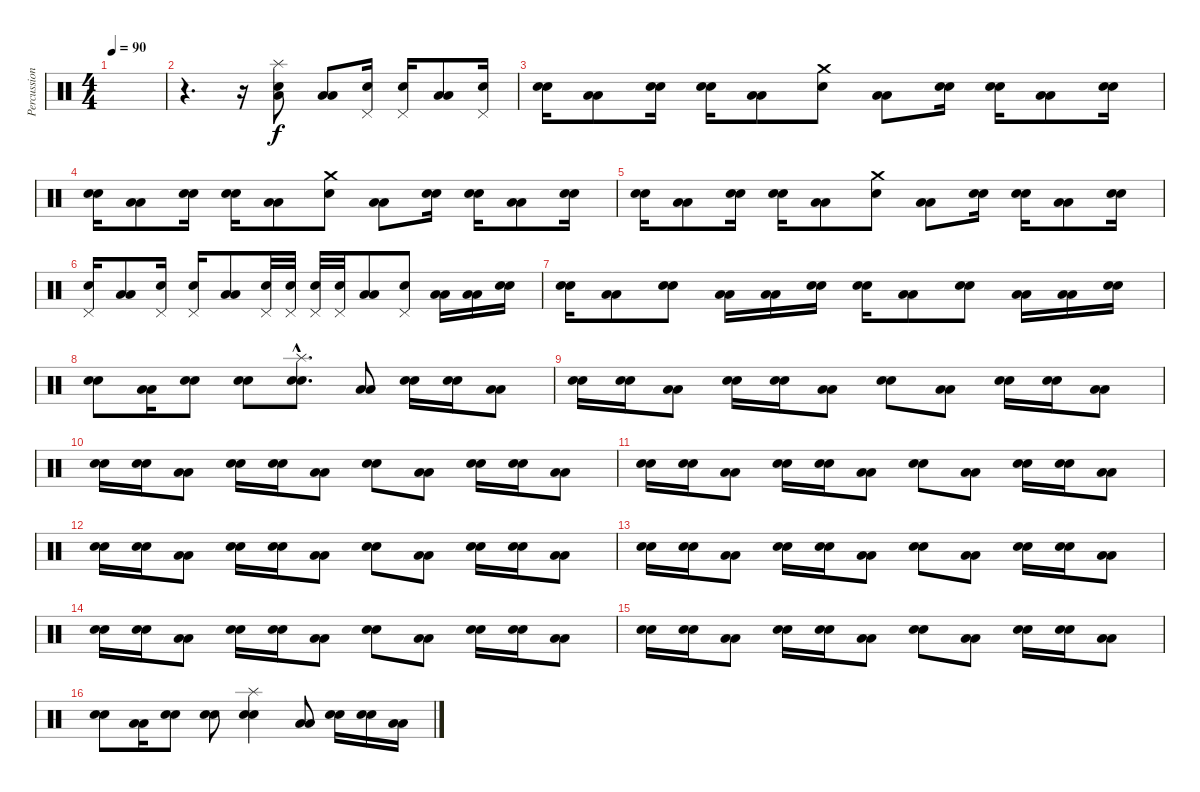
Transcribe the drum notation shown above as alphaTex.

\track ("Percussions" "Percussion") {instrument percussion}
\staff {score}
\articulation defaults
\ts (4 4)
\tempo 90
\clef neutral
\ks c
|
r.4{d} r.16 ("Splash (hit)" "Snare (hit) 2" "Low Floor Tom (hit)").8 ("Low Floor Tom (hit)" "Low Floor Tom (hit)").8 ("Snare (hit) 2" "Pedal Hi-Hat (hit)").16 ("Snare (hit) 2" "Pedal Hi-Hat (hit)").16 ("Low Floor Tom (hit)" "Low Floor Tom (hit)").8 ("Snare (hit) 2" "Pedal Hi-Hat (hit)").16 |
("Snare (hit) 2" "Electric Snare (hit)").16 ("Low Floor Tom (hit)" "Low Floor Tom (hit)").8 ("Snare (hit) 2" "Electric Snare (hit)").16 ("Snare (hit) 2" "Electric Snare (hit)").16 ("Low Floor Tom (hit)" "Low Floor Tom (hit)").8 ("Snare (hit) 2" "Crash medium (hit)").8 ("Low Floor Tom (hit)" "Low Floor Tom (hit)").8 ("Snare (hit) 2" "Electric Snare (hit)").16 ("Snare (hit) 2" "Electric Snare (hit)").16 ("Low Floor Tom (hit)" "Low Floor Tom (hit)").8 ("Snare (hit) 2" "Electric Snare (hit)").16 |
("Snare (hit) 2" "Electric Snare (hit)").16 ("Low Floor Tom (hit)" "Low Floor Tom (hit)").8 ("Snare (hit) 2" "Electric Snare (hit)").16 ("Snare (hit) 2" "Electric Snare (hit)").16 ("Low Floor Tom (hit)" "Low Floor Tom (hit)").8 ("Snare (hit) 2" "Crash medium (hit)").8 ("Low Floor Tom (hit)" "Low Floor Tom (hit)").8 ("Snare (hit) 2" "Electric Snare (hit)").16 ("Snare (hit) 2" "Electric Snare (hit)").16 ("Low Floor Tom (hit)" "Low Floor Tom (hit)").8 ("Snare (hit) 2" "Electric Snare (hit)").16 |
("Snare (hit) 2" "Electric Snare (hit)").16 ("Low Floor Tom (hit)" "Low Floor Tom (hit)").8 ("Snare (hit) 2" "Electric Snare (hit)").16 ("Snare (hit) 2" "Electric Snare (hit)").16 ("Low Floor Tom (hit)" "Low Floor Tom (hit)").8 ("Snare (hit) 2" "Crash medium (hit)").8 ("Low Floor Tom (hit)" "Low Floor Tom (hit)").8 ("Snare (hit) 2" "Electric Snare (hit)").16 ("Snare (hit) 2" "Electric Snare (hit)").16 ("Low Floor Tom (hit)" "Low Floor Tom (hit)").8 ("Snare (hit) 2" "Electric Snare (hit)").16 |
("Snare (hit) 2" "Pedal Hi-Hat (hit)").16 ("Low Floor Tom (hit)" "Low Floor Tom (hit)").8 ("Snare (hit) 2" "Pedal Hi-Hat (hit)").16 ("Snare (hit) 2" "Pedal Hi-Hat (hit)").16 ("Low Floor Tom (hit)" "Low Floor Tom (hit)").8 ("Snare (hit) 2" "Pedal Hi-Hat (hit)").32 ("Snare (hit) 2" "Pedal Hi-Hat (hit)").32 ("Snare (hit) 2" "Pedal Hi-Hat (hit)").32 ("Snare (hit) 2" "Pedal Hi-Hat (hit)").32 ("Low Floor Tom (hit)" "Low Floor Tom (hit)").8 ("Snare (hit) 2" "Pedal Hi-Hat (hit)").8 ("Low Floor Tom (hit)" "Low Floor Tom (hit)").16 ("Low Floor Tom (hit)" "Low Floor Tom (hit)").16 ("Snare (hit) 2" "Electric Snare (hit)").16 |
("Snare (hit) 2" "Electric Snare (hit)").16 ("Low Floor Tom (hit)" "Low Floor Tom (hit)").8 ("Snare (hit) 2" "Electric Snare (hit)").8 ("Low Floor Tom (hit)" "Low Floor Tom (hit)").16 ("Low Floor Tom (hit)" "Low Floor Tom (hit)").16 ("Snare (hit) 2" "Electric Snare (hit)").16 ("Snare (hit) 2" "Electric Snare (hit)").16 ("Low Floor Tom (hit)" "Low Floor Tom (hit)").8 ("Snare (hit) 2" "Electric Snare (hit)").8 ("Low Floor Tom (hit)" "Low Floor Tom (hit)").16 ("Low Floor Tom (hit)" "Low Floor Tom (hit)").16 ("Snare (hit) 2" "Electric Snare (hit)").16 |
("Snare (hit) 2" "Electric Snare (hit)").8 ("Low Floor Tom (hit)" "Low Floor Tom (hit)").16 ("Snare (hit) 2" "Snare (hit) 2").8 ("Snare (hit) 2" "Snare (hit) 2").8 ("Snare (hit) 2"{hac} "Snare (hit) 2"{hac} "Splash (hit)"{hac}).8{d} ("Low Floor Tom (hit)" "Low Floor Tom (hit)").8 ("Snare (hit) 2" "Electric Snare (hit)").16 ("Snare (hit) 2" "Electric Snare (hit)").16 ("Low Floor Tom (hit)" "Low Floor Tom (hit)").8 |
("Snare (hit) 2" "Electric Snare (hit)").16 ("Snare (hit) 2" "Electric Snare (hit)").16 ("Low Floor Tom (hit)" "Low Floor Tom (hit)").8 ("Snare (hit) 2" "Electric Snare (hit)").16 ("Snare (hit) 2" "Electric Snare (hit)").16 ("Low Floor Tom (hit)" "Low Floor Tom (hit)").8 ("Snare (hit) 2" "Electric Snare (hit)").8 ("Low Floor Tom (hit)" "Low Floor Tom (hit)").8 ("Snare (hit) 2" "Electric Snare (hit)").16 ("Snare (hit) 2" "Electric Snare (hit)").16 ("Low Floor Tom (hit)" "Low Floor Tom (hit)").8 |
("Snare (hit) 2" "Electric Snare (hit)").16 ("Snare (hit) 2" "Electric Snare (hit)").16 ("Low Floor Tom (hit)" "Low Floor Tom (hit)").8 ("Snare (hit) 2" "Electric Snare (hit)").16 ("Snare (hit) 2" "Electric Snare (hit)").16 ("Low Floor Tom (hit)" "Low Floor Tom (hit)").8 ("Snare (hit) 2" "Electric Snare (hit)").8 ("Low Floor Tom (hit)" "Low Floor Tom (hit)").8 ("Snare (hit) 2" "Electric Snare (hit)").16 ("Snare (hit) 2" "Electric Snare (hit)").16 ("Low Floor Tom (hit)" "Low Floor Tom (hit)").8 |
("Snare (hit) 2" "Electric Snare (hit)").16 ("Snare (hit) 2" "Electric Snare (hit)").16 ("Low Floor Tom (hit)" "Low Floor Tom (hit)").8 ("Snare (hit) 2" "Electric Snare (hit)").16 ("Snare (hit) 2" "Electric Snare (hit)").16 ("Low Floor Tom (hit)" "Low Floor Tom (hit)").8 ("Snare (hit) 2" "Electric Snare (hit)").8 ("Low Floor Tom (hit)" "Low Floor Tom (hit)").8 ("Snare (hit) 2" "Electric Snare (hit)").16 ("Snare (hit) 2" "Electric Snare (hit)").16 ("Low Floor Tom (hit)" "Low Floor Tom (hit)").8 |
("Snare (hit) 2" "Electric Snare (hit)").16 ("Snare (hit) 2" "Electric Snare (hit)").16 ("Low Floor Tom (hit)" "Low Floor Tom (hit)").8 ("Snare (hit) 2" "Electric Snare (hit)").16 ("Snare (hit) 2" "Electric Snare (hit)").16 ("Low Floor Tom (hit)" "Low Floor Tom (hit)").8 ("Snare (hit) 2" "Electric Snare (hit)").8 ("Low Floor Tom (hit)" "Low Floor Tom (hit)").8 ("Snare (hit) 2" "Electric Snare (hit)").16 ("Snare (hit) 2" "Electric Snare (hit)").16 ("Low Floor Tom (hit)" "Low Floor Tom (hit)").8 |
("Snare (hit) 2" "Electric Snare (hit)").16 ("Snare (hit) 2" "Electric Snare (hit)").16 ("Low Floor Tom (hit)" "Low Floor Tom (hit)").8 ("Snare (hit) 2" "Electric Snare (hit)").16 ("Snare (hit) 2" "Electric Snare (hit)").16 ("Low Floor Tom (hit)" "Low Floor Tom (hit)").8 ("Snare (hit) 2" "Electric Snare (hit)").8 ("Low Floor Tom (hit)" "Low Floor Tom (hit)").8 ("Snare (hit) 2" "Electric Snare (hit)").16 ("Snare (hit) 2" "Electric Snare (hit)").16 ("Low Floor Tom (hit)" "Low Floor Tom (hit)").8 |
("Snare (hit) 2" "Electric Snare (hit)").16 ("Snare (hit) 2" "Electric Snare (hit)").16 ("Low Floor Tom (hit)" "Low Floor Tom (hit)").8 ("Snare (hit) 2" "Electric Snare (hit)").16 ("Snare (hit) 2" "Electric Snare (hit)").16 ("Low Floor Tom (hit)" "Low Floor Tom (hit)").8 ("Snare (hit) 2" "Electric Snare (hit)").8 ("Low Floor Tom (hit)" "Low Floor Tom (hit)").8 ("Snare (hit) 2" "Electric Snare (hit)").16 ("Snare (hit) 2" "Electric Snare (hit)").16 ("Low Floor Tom (hit)" "Low Floor Tom (hit)").8 |
("Snare (hit) 2" "Electric Snare (hit)").16 ("Snare (hit) 2" "Electric Snare (hit)").16 ("Low Floor Tom (hit)" "Low Floor Tom (hit)").8 ("Snare (hit) 2" "Electric Snare (hit)").16 ("Snare (hit) 2" "Electric Snare (hit)").16 ("Low Floor Tom (hit)" "Low Floor Tom (hit)").8 ("Snare (hit) 2" "Electric Snare (hit)").8 ("Low Floor Tom (hit)" "Low Floor Tom (hit)").8 ("Snare (hit) 2" "Electric Snare (hit)").16 ("Snare (hit) 2" "Electric Snare (hit)").16 ("Low Floor Tom (hit)" "Low Floor Tom (hit)").8 |
("Snare (hit) 2" "Electric Snare (hit)").8 ("Low Floor Tom (hit)" "Low Floor Tom (hit)").16 ("Snare (hit) 2" "Snare (hit) 2").8 ("Snare (hit) 2" "Snare (hit) 2").8 ("Snare (hit) 2" "Snare (hit) 2" "Splash (hit)").4 ("Low Floor Tom (hit)" "Low Floor Tom (hit)").8 ("Snare (hit) 2" "Electric Snare (hit)").16 ("Snare (hit) 2" "Electric Snare (hit)").16 ("Low Floor Tom (hit)" "Low Floor Tom (hit)").16
